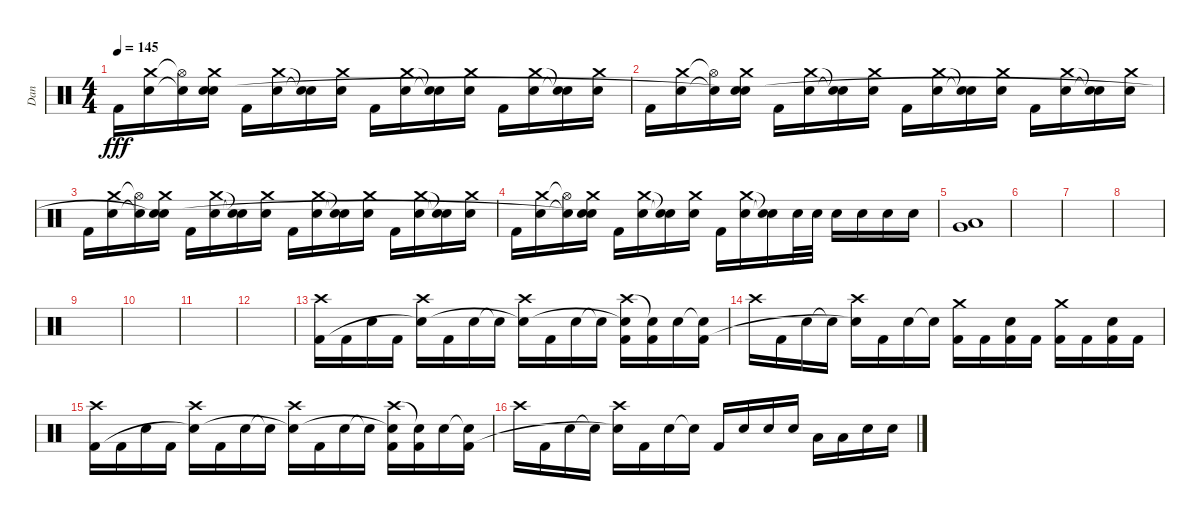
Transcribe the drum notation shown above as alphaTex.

\track ("Dan" "Dan") {instrument percussion}
\staff {score}
\articulation defaults
\ts (4 4)
\tempo 145
\clef neutral
\ks c "Kick (hit) 2".16{dy fff}
("Crash medium (hit)" "Electric Snare (hit)").16 ("Hi-Hat (open)"{t} "Snare (hit)"{t}).16 ("Crash medium (hit)" "Electric Snare (hit)" "Snare (hit)"{t}).16 "Kick (hit) 2".16 ("Crash medium (hit)" "Electric Snare (hit)").16 ("Snare (hit)"{t} "Snare (hit)"{t}).16 ("Crash medium (hit)" "Electric Snare (hit)").16 "Kick (hit) 2".16 ("Crash medium (hit)" "Electric Snare (hit)").16 ("Snare (hit)"{t} "Snare (hit)"{t}).16 ("Crash medium (hit)" "Electric Snare (hit)").16 "Kick (hit) 2".16 ("Crash medium (hit)" "Electric Snare (hit)").16 ("Snare (hit)"{t} "Snare (hit)"{t}).16 ("Crash medium (hit)" "Electric Snare (hit)").16 |
"Kick (hit) 2".16 ("Crash medium (hit)" "Electric Snare (hit)").16 ("Hi-Hat (open)"{t} "Snare (hit)"{t}).16 ("Crash medium (hit)" "Electric Snare (hit)" "Snare (hit)"{t}).16 "Kick (hit) 2".16 ("Crash medium (hit)" "Electric Snare (hit)").16 ("Snare (hit)"{t} "Snare (hit)"{t}).16 ("Crash medium (hit)" "Electric Snare (hit)").16 "Kick (hit) 2".16 ("Crash medium (hit)" "Electric Snare (hit)").16 ("Snare (hit)"{t} "Snare (hit)"{t}).16 ("Crash medium (hit)" "Electric Snare (hit)").16 "Kick (hit) 2".16 ("Crash medium (hit)" "Electric Snare (hit)").16 ("Snare (hit)"{t} "Snare (hit)"{t}).16 ("Crash medium (hit)" "Electric Snare (hit)").16 |
"Kick (hit) 2".16 ("Crash medium (hit)" "Electric Snare (hit)").16 ("Hi-Hat (open)"{t} "Snare (hit)"{t}).16 ("Crash medium (hit)" "Electric Snare (hit)" "Snare (hit)"{t}).16 "Kick (hit) 2".16 ("Crash medium (hit)" "Electric Snare (hit)").16 ("Snare (hit)"{t} "Snare (hit)"{t}).16 ("Crash medium (hit)" "Electric Snare (hit)").16 "Kick (hit) 2".16 ("Crash medium (hit)" "Electric Snare (hit)").16 ("Snare (hit)"{t} "Snare (hit)"{t}).16 ("Crash medium (hit)" "Electric Snare (hit)").16 "Kick (hit) 2".16 ("Crash medium (hit)" "Electric Snare (hit)").16 ("Snare (hit)"{t} "Snare (hit)"{t}).16 ("Crash medium (hit)" "Electric Snare (hit)").16 |
"Kick (hit) 2".16 ("Crash medium (hit)" "Electric Snare (hit)").16 ("Hi-Hat (open)"{t} "Snare (hit)"{t}).16 ("Crash medium (hit)" "Electric Snare (hit)" "Snare (hit)"{t}).16 "Kick (hit) 2".16 ("Crash medium (hit)" "Electric Snare (hit)").16 ("Snare (hit)"{t} "Snare (hit)"{t}).16 ("Crash medium (hit)" "Electric Snare (hit)").16 "Kick (hit) 2".16 ("Crash medium (hit)" "Electric Snare (hit)").16 ("Snare (hit)"{t} "Electric Snare (hit)"{t}).16 "Electric Snare (hit)".32 "Electric Snare (hit)".32 "Electric Snare (hit)".16 "Electric Snare (hit)".16 "Electric Snare (hit)".16 "Electric Snare (hit)".16 |
("Very Low Tom (hit)" "Low Floor Tom (hit)").1 |
|
|
|
|
|
|
|
("Crash high (hit)" "Kick (hit) 2").16 "Kick (hit) 2".16 "Electric Snare (hit)".16 "Kick (hit) 2".16 ("Crash high (hit)" "Snare (hit)"{t}).16 "Kick (hit) 2".16 "Electric Snare (hit)".16 "Snare (hit)"{t}.16 ("Crash high (hit)" "Snare (hit)"{t}).16 "Kick (hit) 2".16 "Electric Snare (hit)".16 "Snare (hit)"{t}.16 ("Crash high (hit)" "Snare (hit)"{t} "Kick (hit) 2").16 ("Snare (hit)"{t} "Kick (hit) 2").16 "Electric Snare (hit)".16 ("Snare (hit)"{t} "Kick (hit) 2").16 |
"Crash high (hit)".16 "Kick (hit) 2".16 "Electric Snare (hit)".16 "Snare (hit)"{t}.16 ("Crash high (hit)" "Snare (hit)"{t}).16 "Kick (hit) 2".16 "Electric Snare (hit)".16 "Snare (hit)"{t}.16 ("Crash medium (hit)" "Kick (hit) 2").16 "Kick (hit) 2".16 ("Electric Snare (hit)" "Kick (hit) 2").16 "Kick (hit) 2".16 ("Crash medium (hit)" "Kick (hit) 2").16 "Kick (hit) 2".16 ("Electric Snare (hit)" "Kick (hit) 2").16 "Kick (hit) 2".16 |
("Crash high (hit)" "Kick (hit) 2").16 "Kick (hit) 2".16 "Electric Snare (hit)".16 "Kick (hit) 2".16 ("Crash high (hit)" "Snare (hit)"{t}).16 "Kick (hit) 2".16 "Electric Snare (hit)".16 "Snare (hit)"{t}.16 ("Crash high (hit)" "Snare (hit)"{t}).16 "Kick (hit) 2".16 "Electric Snare (hit)".16 "Snare (hit)"{t}.16 ("Crash high (hit)" "Snare (hit)"{t} "Kick (hit) 2").16 ("Snare (hit)"{t} "Kick (hit) 2").16 "Electric Snare (hit)".16 ("Snare (hit)"{t} "Kick (hit) 2").16 |
"Crash high (hit)".16 "Kick (hit) 2".16 "Electric Snare (hit)".16 "Snare (hit)"{t}.16 ("Crash high (hit)" "Snare (hit)"{t}).16 "Kick (hit) 2".16 "Electric Snare (hit)".16 "Snare (hit)"{t}.16 "Kick (hit) 2".16 "Electric Snare (hit)".16 "Electric Snare (hit)".16 "Electric Snare (hit)".16 "Low Floor Tom (hit)".16 "Low Floor Tom (hit)".16 "Electric Snare (hit)".16 "Electric Snare (hit)".16
